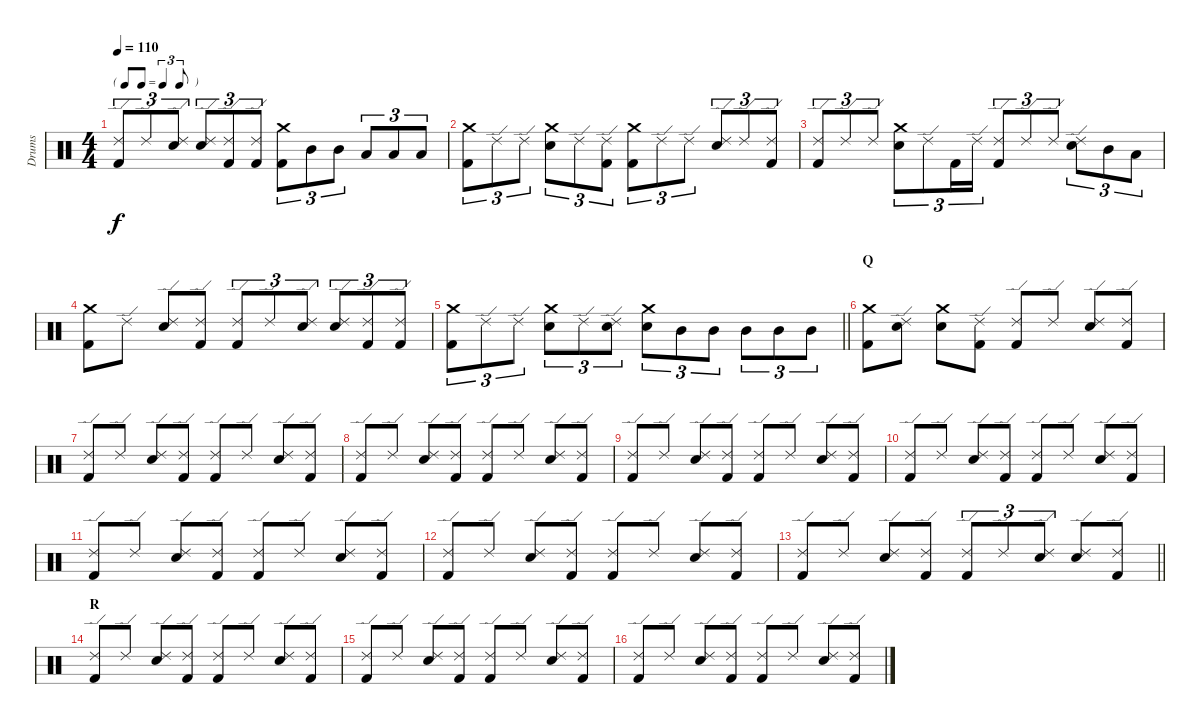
\track ("Drums" "Drums") {instrument percussion}
\staff {score}
\articulation defaults
\ts (4 4)
\tf triplet8th
\tempo 110
\clef neutral
\ks c
("Ride (edge) 2" "Kick (hit) 2").8{tu (3 2) dy f} "Ride (edge) 2".8{tu (3 2)} ("Ride (edge) 2" "Snare (hit) 2").8{tu (3 2)} ("Ride (edge) 2" "Snare (hit) 2").8{tu (3 2)} ("Ride (edge) 2" "Kick (hit) 2").8{tu (3 2)} ("Ride (edge) 2" "Kick (hit) 2").8{tu (3 2)} ("Crash medium (hit)" "Kick (hit) 2").8{tu (3 2)} "Mid Tom (hit)".8{tu (3 2)} "Mid Tom (hit)".8{tu (3 2)} "Low Tom (hit)".8{tu (3 2)} "Low Tom (hit)".8{tu (3 2)} "Low Tom (hit)".8{tu (3 2)} |
("Crash medium (hit)" "Kick (hit) 2").8{tu (3 2)} "Ride (edge) 2".8{tu (3 2)} "Ride (edge) 2".8{tu (3 2)} ("Crash medium (hit)" "Snare (hit) 2").8{tu (3 2)} "Ride (edge) 2".8{tu (3 2)} ("Ride (edge) 2" "Kick (hit) 2").8{tu (3 2)} ("Crash medium (hit)" "Kick (hit) 2").8{tu (3 2)} "Ride (edge) 2".8{tu (3 2)} "Ride (edge) 2".8{tu (3 2)} ("Ride (edge) 2" "Snare (hit) 2").8{tu (3 2)} "Ride (edge) 2".8{tu (3 2)} ("Ride (edge) 2" "Kick (hit) 2").8{tu (3 2)} |
("Ride (edge) 2" "Kick (hit) 2").8{tu (3 2)} "Ride (edge) 2".8{tu (3 2)} "Ride (edge) 2".8{tu (3 2)} ("Crash medium (hit)" "Snare (hit) 2").8{tu (3 2)} "Ride (edge) 2".8{tu (3 2)} "Kick (hit) 2".16{tu (3 2)} "Ride (edge) 2".16{tu (3 2)} ("Ride (edge) 2" "Kick (hit) 2").8{tu (3 2)} "Ride (edge) 2".8{tu (3 2)} "Ride (edge) 2".8{tu (3 2)} ("Ride (edge) 2" "Snare (hit) 2").8{tu (3 2)} "Mid Tom (hit)".8{tu (3 2)} "Low Tom (hit)".8{tu (3 2)} |
("Crash medium (hit)" "Kick (hit) 2").8 "Ride (edge) 2".8 ("Ride (edge) 2" "Snare (hit) 2").8 ("Ride (edge) 2" "Kick (hit) 2").8 ("Ride (edge) 2" "Kick (hit) 2").8{tu (3 2)} "Ride (edge) 2".8{tu (3 2)} ("Ride (edge) 2" "Snare (hit) 2").8{tu (3 2)} ("Ride (edge) 2" "Snare (hit) 2").8{tu (3 2)} ("Ride (edge) 2" "Kick (hit) 2").8{tu (3 2)} ("Ride (edge) 2" "Kick (hit) 2").8{tu (3 2)} |
\barLineRight lightlight
("Crash medium (hit)" "Kick (hit) 2").8{tu (3 2)} "Ride (edge) 2".8{tu (3 2)} "Ride (edge) 2".8{tu (3 2)} ("Crash medium (hit)" "Snare (hit) 2").8{tu (3 2)} "Ride (edge) 2".8{tu (3 2)} ("Ride (edge) 2" "Snare (hit) 2").8{tu (3 2)} ("Crash medium (hit)" "Snare (hit) 2").8{tu (3 2)} "Mid Tom (hit)".8{tu (3 2)} "Mid Tom (hit)".8{tu (3 2)} "Mid Tom (hit)".8{tu (3 2)} "Mid Tom (hit)".8{tu (3 2)} "Mid Tom (hit)".8{tu (3 2)} |
\section ("" "Q")
("Crash medium (hit)" "Kick (hit) 2").8 ("Ride (edge) 2" "Snare (hit) 2").8 ("Crash medium (hit)" "Snare (hit) 2").8 ("Ride (edge) 2" "Kick (hit) 2").8 ("Ride (edge) 2" "Kick (hit) 2").8 "Ride (edge) 2".8 ("Ride (edge) 2" "Snare (hit) 2").8 ("Ride (edge) 2" "Kick (hit) 2").8 |
("Ride (edge) 2" "Kick (hit) 2").8 "Ride (edge) 2".8 ("Ride (edge) 2" "Snare (hit) 2").8 ("Ride (edge) 2" "Kick (hit) 2").8 ("Ride (edge) 2" "Kick (hit) 2").8 "Ride (edge) 2".8 ("Ride (edge) 2" "Snare (hit) 2").8 ("Ride (edge) 2" "Kick (hit) 2").8 |
("Ride (edge) 2" "Kick (hit) 2").8 "Ride (edge) 2".8 ("Ride (edge) 2" "Snare (hit) 2").8 ("Ride (edge) 2" "Kick (hit) 2").8 ("Ride (edge) 2" "Kick (hit) 2").8 "Ride (edge) 2".8 ("Ride (edge) 2" "Snare (hit) 2").8 ("Ride (edge) 2" "Kick (hit) 2").8 |
("Ride (edge) 2" "Kick (hit) 2").8 "Ride (edge) 2".8 ("Ride (edge) 2" "Snare (hit) 2").8 ("Ride (edge) 2" "Kick (hit) 2").8 ("Ride (edge) 2" "Kick (hit) 2").8 "Ride (edge) 2".8 ("Ride (edge) 2" "Snare (hit) 2").8 ("Ride (edge) 2" "Kick (hit) 2").8 |
("Ride (edge) 2" "Kick (hit) 2").8 "Ride (edge) 2".8 ("Ride (edge) 2" "Snare (hit) 2").8 ("Ride (edge) 2" "Kick (hit) 2").8 ("Ride (edge) 2" "Kick (hit) 2").8 "Ride (edge) 2".8 ("Ride (edge) 2" "Snare (hit) 2").8 ("Ride (edge) 2" "Kick (hit) 2").8 |
("Ride (edge) 2" "Kick (hit) 2").8 "Ride (edge) 2".8 ("Ride (edge) 2" "Snare (hit) 2").8 ("Ride (edge) 2" "Kick (hit) 2").8 ("Ride (edge) 2" "Kick (hit) 2").8 "Ride (edge) 2".8 ("Ride (edge) 2" "Snare (hit) 2").8 ("Ride (edge) 2" "Kick (hit) 2").8 |
("Ride (edge) 2" "Kick (hit) 2").8 "Ride (edge) 2".8 ("Ride (edge) 2" "Snare (hit) 2").8 ("Ride (edge) 2" "Kick (hit) 2").8 ("Ride (edge) 2" "Kick (hit) 2").8 "Ride (edge) 2".8 ("Ride (edge) 2" "Snare (hit) 2").8 ("Ride (edge) 2" "Kick (hit) 2").8 |
\barLineRight lightlight
("Ride (edge) 2" "Kick (hit) 2").8 "Ride (edge) 2".8 ("Ride (edge) 2" "Snare (hit) 2").8 ("Ride (edge) 2" "Kick (hit) 2").8 ("Ride (edge) 2" "Kick (hit) 2").8{tu (3 2)} "Ride (edge) 2".8{tu (3 2)} ("Ride (edge) 2" "Snare (hit) 2").8{tu (3 2)} ("Ride (edge) 2" "Snare (hit) 2").8 ("Ride (edge) 2" "Kick (hit) 2").8 |
\section ("" "R")
("Ride (edge) 2" "Kick (hit) 2").8 "Ride (edge) 2".8 ("Ride (edge) 2" "Snare (hit) 2").8 ("Ride (edge) 2" "Kick (hit) 2").8 ("Ride (edge) 2" "Kick (hit) 2").8 "Ride (edge) 2".8 ("Ride (edge) 2" "Snare (hit) 2").8 ("Ride (edge) 2" "Kick (hit) 2").8 |
("Ride (edge) 2" "Kick (hit) 2").8 "Ride (edge) 2".8 ("Ride (edge) 2" "Snare (hit) 2").8 ("Ride (edge) 2" "Kick (hit) 2").8 ("Ride (edge) 2" "Kick (hit) 2").8 "Ride (edge) 2".8 ("Ride (edge) 2" "Snare (hit) 2").8 ("Ride (edge) 2" "Kick (hit) 2").8 |
("Ride (edge) 2" "Kick (hit) 2").8 "Ride (edge) 2".8 ("Ride (edge) 2" "Snare (hit) 2").8 ("Ride (edge) 2" "Kick (hit) 2").8 ("Ride (edge) 2" "Kick (hit) 2").8 "Ride (edge) 2".8 ("Ride (edge) 2" "Snare (hit) 2").8 ("Ride (edge) 2" "Kick (hit) 2").8
